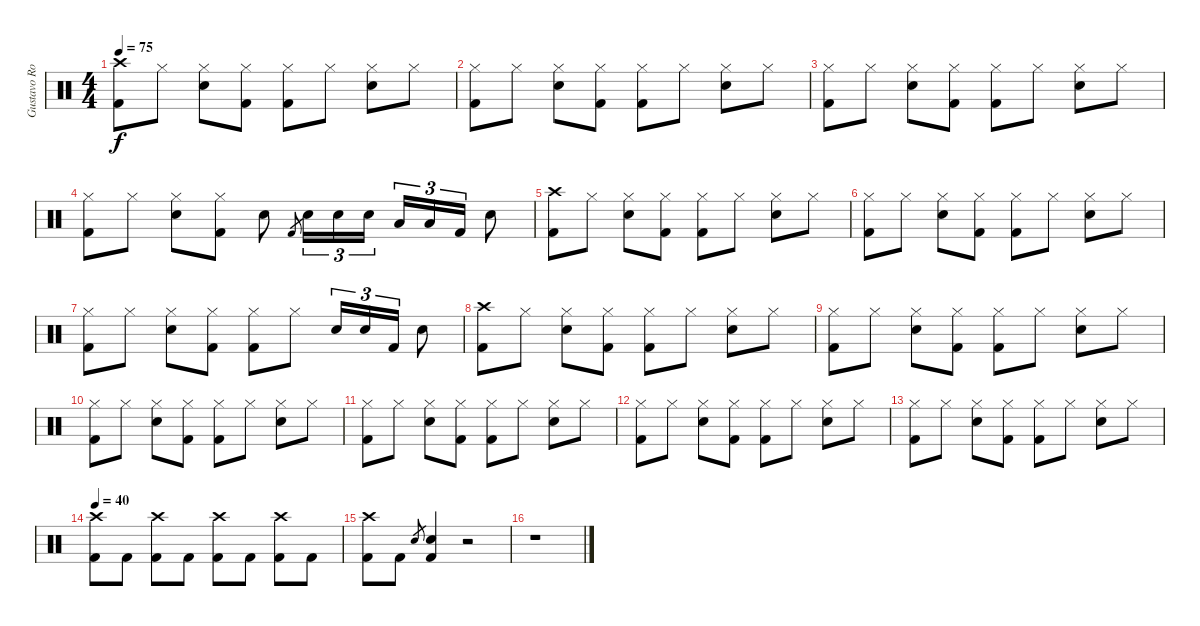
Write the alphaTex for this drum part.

\track ("Gustavo Rowek" "Gustavo Ro") {instrument percussion}
\staff {score}
\articulation defaults
\ts (4 4)
\tempo 75
\clef neutral
\ks c
("Kick (hit) 2" "Crash high (hit)").8{dy f} "Hi-Hat (closed)".8 ("Snare (hit) 2" "Hi-Hat (closed)").8 ("Kick (hit) 2" "Hi-Hat (closed)").8 ("Kick (hit) 2" "Hi-Hat (closed)").8 "Hi-Hat (closed)".8 ("Snare (hit) 2" "Hi-Hat (closed)").8 "Hi-Hat (closed)".8 |
("Kick (hit) 2" "Hi-Hat (closed)").8 "Hi-Hat (closed)".8 ("Snare (hit) 2" "Hi-Hat (closed)").8 ("Kick (hit) 2" "Hi-Hat (closed)").8 ("Kick (hit) 2" "Hi-Hat (closed)").8 "Hi-Hat (closed)".8 ("Snare (hit) 2" "Hi-Hat (closed)").8 "Hi-Hat (closed)".8 |
("Kick (hit) 2" "Hi-Hat (closed)").8 "Hi-Hat (closed)".8 ("Snare (hit) 2" "Hi-Hat (closed)").8 ("Kick (hit) 2" "Hi-Hat (closed)").8 ("Kick (hit) 2" "Hi-Hat (closed)").8 "Hi-Hat (closed)".8 ("Snare (hit) 2" "Hi-Hat (closed)").8 "Hi-Hat (closed)".8 |
("Kick (hit) 2" "Hi-Hat (closed)").8 "Hi-Hat (closed)".8 ("Snare (hit) 2" "Hi-Hat (closed)").8 ("Kick (hit) 2" "Hi-Hat (closed)").8 "Snare (hit) 2".8 "Kick (hit) 2".8{gr} "Snare (hit) 2".16{tu (3 2)} "Snare (hit) 2".16{tu (3 2)} "Snare (hit) 2".16{tu (3 2)} "Low Tom (hit)".16{tu (3 2)} "Low Tom (hit)".16{tu (3 2)} "Kick (hit) 2".16{tu (3 2)} "Snare (hit) 2".8 |
("Kick (hit) 2" "Crash high (hit)").8 "Hi-Hat (closed)".8 ("Snare (hit) 2" "Hi-Hat (closed)").8 ("Kick (hit) 2" "Hi-Hat (closed)").8 ("Kick (hit) 2" "Hi-Hat (closed)").8 "Hi-Hat (closed)".8 ("Snare (hit) 2" "Hi-Hat (closed)").8 "Hi-Hat (closed)".8 |
("Kick (hit) 2" "Hi-Hat (closed)").8 "Hi-Hat (closed)".8 ("Snare (hit) 2" "Hi-Hat (closed)").8 ("Kick (hit) 2" "Hi-Hat (closed)").8 ("Kick (hit) 2" "Hi-Hat (closed)").8 "Hi-Hat (closed)".8 ("Snare (hit) 2" "Hi-Hat (closed)").8 "Hi-Hat (closed)".8 |
("Kick (hit) 2" "Hi-Hat (closed)").8 "Hi-Hat (closed)".8 ("Snare (hit) 2" "Hi-Hat (closed)").8 ("Kick (hit) 2" "Hi-Hat (closed)").8 ("Kick (hit) 2" "Hi-Hat (closed)").8 "Hi-Hat (closed)".8 "Snare (hit) 2".16{tu (3 2)} "Snare (hit) 2".16{tu (3 2)} "Kick (hit) 2".16{tu (3 2)} "Snare (hit) 2".8 |
("Kick (hit) 2" "Crash high (hit)").8 "Hi-Hat (closed)".8 ("Snare (hit) 2" "Hi-Hat (closed)").8 ("Kick (hit) 2" "Hi-Hat (closed)").8 ("Kick (hit) 2" "Hi-Hat (closed)").8 "Hi-Hat (closed)".8 ("Snare (hit) 2" "Hi-Hat (closed)").8 "Hi-Hat (closed)".8 |
("Kick (hit) 2" "Hi-Hat (closed)").8 "Hi-Hat (closed)".8 ("Snare (hit) 2" "Hi-Hat (closed)").8 ("Kick (hit) 2" "Hi-Hat (closed)").8 ("Kick (hit) 2" "Hi-Hat (closed)").8 "Hi-Hat (closed)".8 ("Snare (hit) 2" "Hi-Hat (closed)").8 "Hi-Hat (closed)".8 |
("Kick (hit) 2" "Hi-Hat (closed)").8 "Hi-Hat (closed)".8 ("Snare (hit) 2" "Hi-Hat (closed)").8 ("Kick (hit) 2" "Hi-Hat (closed)").8 ("Kick (hit) 2" "Hi-Hat (closed)").8 "Hi-Hat (closed)".8 ("Snare (hit) 2" "Hi-Hat (closed)").8 "Hi-Hat (closed)".8 |
("Kick (hit) 2" "Hi-Hat (closed)").8 "Hi-Hat (closed)".8 ("Snare (hit) 2" "Hi-Hat (closed)").8 ("Kick (hit) 2" "Hi-Hat (closed)").8 ("Kick (hit) 2" "Hi-Hat (closed)").8 "Hi-Hat (closed)".8 ("Snare (hit) 2" "Hi-Hat (closed)").8 "Hi-Hat (closed)".8 |
("Kick (hit) 2" "Hi-Hat (closed)").8 "Hi-Hat (closed)".8 ("Snare (hit) 2" "Hi-Hat (closed)").8 ("Kick (hit) 2" "Hi-Hat (closed)").8 ("Kick (hit) 2" "Hi-Hat (closed)").8 "Hi-Hat (closed)".8 ("Snare (hit) 2" "Hi-Hat (closed)").8 "Hi-Hat (closed)".8 |
("Kick (hit) 2" "Hi-Hat (closed)").8 "Hi-Hat (closed)".8 ("Snare (hit) 2" "Hi-Hat (closed)").8 ("Kick (hit) 2" "Hi-Hat (closed)").8 ("Kick (hit) 2" "Hi-Hat (closed)").8 "Hi-Hat (closed)".8 ("Snare (hit) 2" "Hi-Hat (closed)").8 "Hi-Hat (closed)".8 |
\tempo 40
("Kick (hit) 2" "Crash high (hit)").8 "Kick (hit) 2".8 ("Kick (hit) 2" "Crash high (hit)").8 "Kick (hit) 2".8 ("Kick (hit) 2" "Crash high (hit)").8 "Kick (hit) 2".8 ("Kick (hit) 2" "Crash high (hit)").8 "Kick (hit) 2".8 |
("Kick (hit) 2" "Crash high (hit)").8 "Kick (hit) 2".8 "Snare (hit) 2".8{gr} ("Kick (hit) 2" "Snare (hit) 2").4 r.2 |
r.1
